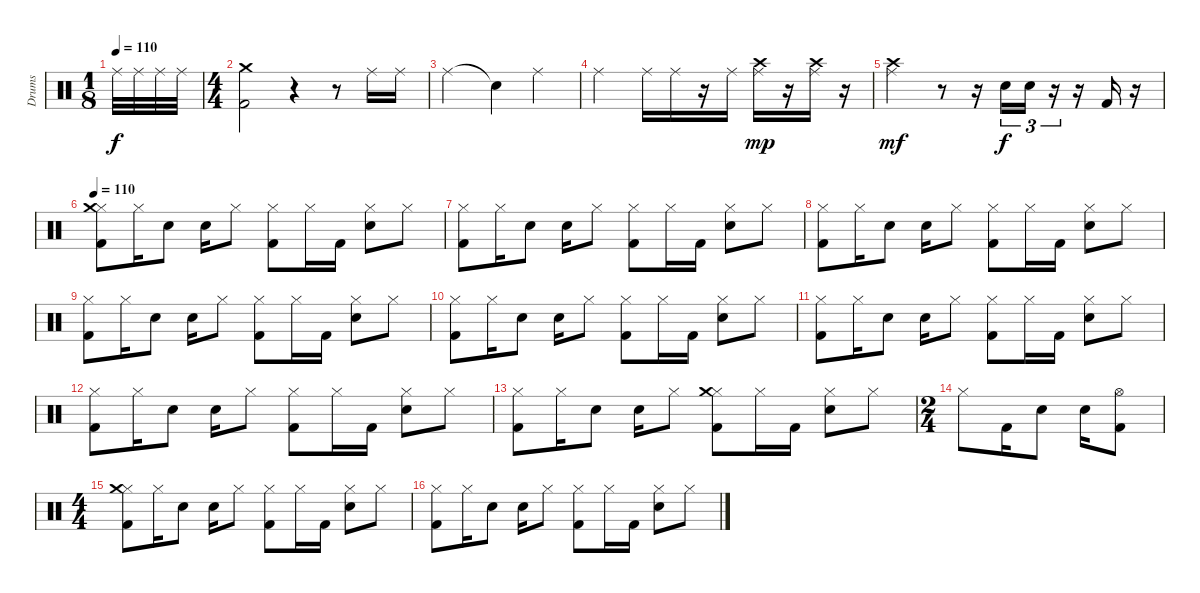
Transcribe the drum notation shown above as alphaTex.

\track ("Drums" "Drums") {instrument percussion}
\staff {score}
\articulation defaults
\ts (1 8)
\tempo 110
\tempo 100
\tempo 110
\clef neutral
\ks c "Ride (middle)".32{dy f} "Ride (middle)".32 "Ride (middle)".32 "Ride (middle)".32
|
\ts (4 4)
("Crash medium (hit)" "Kick (hit) 2").2 r.4 r.8 "Ride (middle)".16 "Ride (middle)".16 |
"Ride (middle)".2 "Snare (hit)"{t}.4 "Ride (middle)".4 |
"Ride (middle)".2 "Ride (middle)".16 "Ride (middle)".16 r.16 "Ride (middle)".16 ("Ride (middle)" "Crash high (hit)").16{dy mp} r.16 ("Ride (middle)" "Crash high (hit)").16 r.16 |
("Ride (middle)" "Crash high (hit)").2{dy mf} r.8 r.16 "Electric Snare (hit)".16{tu (3 2) dy f} "Electric Snare (hit)".16{tu (3 2)} r.16{tu (3 2)} r.16 "Kick (hit) 2".16 r.16 |
\tempo 110
("Hi-Hat (closed)" "Kick (hit) 2" "Crash medium (hit)").8 "Hi-Hat (closed)".16 "Electric Snare (hit)".8 "Electric Snare (hit)".16 "Hi-Hat (closed)".8 ("Hi-Hat (closed)" "Kick (hit) 2").8 "Hi-Hat (closed)".16 "Kick (hit) 2".16 ("Hi-Hat (closed)" "Electric Snare (hit)").8 "Hi-Hat (closed)".8 |
("Hi-Hat (closed)" "Kick (hit) 2").8 "Hi-Hat (closed)".16 "Electric Snare (hit)".8 "Electric Snare (hit)".16 "Hi-Hat (closed)".8 ("Hi-Hat (closed)" "Kick (hit) 2").8 "Hi-Hat (closed)".16 "Kick (hit) 2".16 ("Hi-Hat (closed)" "Electric Snare (hit)").8 "Hi-Hat (closed)".8 |
("Hi-Hat (closed)" "Kick (hit) 2").8 "Hi-Hat (closed)".16 "Electric Snare (hit)".8 "Electric Snare (hit)".16 "Hi-Hat (closed)".8 ("Hi-Hat (closed)" "Kick (hit) 2").8 "Hi-Hat (closed)".16 "Kick (hit) 2".16 ("Hi-Hat (closed)" "Electric Snare (hit)").8 "Hi-Hat (closed)".8 |
("Hi-Hat (closed)" "Kick (hit) 2").8 "Hi-Hat (closed)".16 "Electric Snare (hit)".8 "Electric Snare (hit)".16 "Hi-Hat (closed)".8 ("Hi-Hat (closed)" "Kick (hit) 2").8 "Hi-Hat (closed)".16 "Kick (hit) 2".16 ("Hi-Hat (closed)" "Electric Snare (hit)").8 "Hi-Hat (closed)".8 |
("Hi-Hat (closed)" "Kick (hit) 2").8 "Hi-Hat (closed)".16 "Electric Snare (hit)".8 "Electric Snare (hit)".16 "Hi-Hat (closed)".8 ("Hi-Hat (closed)" "Kick (hit) 2").8 "Hi-Hat (closed)".16 "Kick (hit) 2".16 ("Hi-Hat (closed)" "Electric Snare (hit)").8 "Hi-Hat (closed)".8 |
("Hi-Hat (closed)" "Kick (hit) 2").8 "Hi-Hat (closed)".16 "Electric Snare (hit)".8 "Electric Snare (hit)".16 "Hi-Hat (closed)".8 ("Hi-Hat (closed)" "Kick (hit) 2").8 "Hi-Hat (closed)".16 "Kick (hit) 2".16 ("Hi-Hat (closed)" "Electric Snare (hit)").8 "Hi-Hat (closed)".8 |
("Hi-Hat (closed)" "Kick (hit) 2").8 "Hi-Hat (closed)".16 "Electric Snare (hit)".8 "Electric Snare (hit)".16 "Hi-Hat (closed)".8 ("Hi-Hat (closed)" "Kick (hit) 2").8 "Hi-Hat (closed)".16 "Kick (hit) 2".16 ("Hi-Hat (closed)" "Electric Snare (hit)").8 "Hi-Hat (closed)".8 |
("Hi-Hat (closed)" "Kick (hit) 2").8 "Hi-Hat (closed)".16 "Electric Snare (hit)".8 "Electric Snare (hit)".16 "Hi-Hat (closed)".8 ("Hi-Hat (closed)" "Kick (hit) 2" "Crash medium (hit)").8 "Hi-Hat (closed)".16 "Kick (hit) 2".16 ("Hi-Hat (closed)" "Electric Snare (hit)").8 "Hi-Hat (closed)".8 |
\ts (2 4)
"Hi-Hat (closed)".8 "Kick (hit) 2".16 "Electric Snare (hit)".8 "Electric Snare (hit)".16 ("Hi-Hat (open)" "Kick (hit) 2").8 |
\ts (4 4)
("Hi-Hat (closed)" "Kick (hit) 2" "Crash medium (hit)").8 "Hi-Hat (closed)".16 "Electric Snare (hit)".8 "Electric Snare (hit)".16 "Hi-Hat (closed)".8 ("Hi-Hat (closed)" "Kick (hit) 2").8 "Hi-Hat (closed)".16 "Kick (hit) 2".16 ("Hi-Hat (closed)" "Electric Snare (hit)").8 "Hi-Hat (closed)".8 |
("Hi-Hat (closed)" "Kick (hit) 2").8 "Hi-Hat (closed)".16 "Electric Snare (hit)".8 "Electric Snare (hit)".16 "Hi-Hat (closed)".8 ("Hi-Hat (closed)" "Kick (hit) 2").8 "Hi-Hat (closed)".16 "Kick (hit) 2".16 ("Hi-Hat (closed)" "Electric Snare (hit)").8 "Hi-Hat (closed)".8
